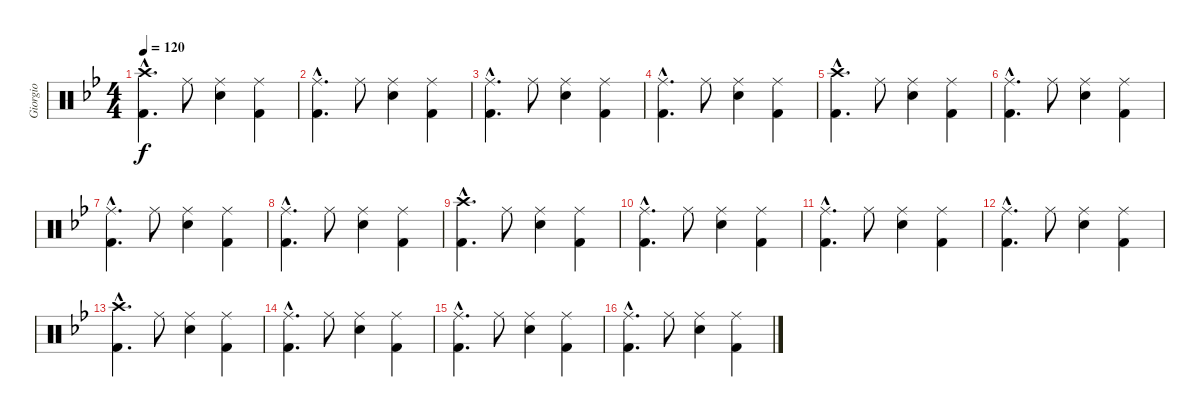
\track ("Giorgio" "Giorgio") {instrument percussion}
\staff {score}
\articulation defaults
\ts (4 4)
\tempo 120
\clef neutral
\ks gminor
("Crash high (hit)"{hac} "Kick (hit) 2"{hac}).4{d dy f} "Ride (middle)".8 ("Ride (middle)" "Snare (hit) 2").4 ("Ride (middle)" "Kick (hit) 2").4 |
("Ride (middle)"{hac} "Kick (hit) 2"{hac}).4{d} "Ride (middle)".8 ("Ride (middle)" "Snare (hit) 2").4 ("Kick (hit) 2" "Ride (middle)").4 |
("Ride (middle)"{hac} "Kick (hit) 2"{hac}).4{d} "Ride (middle)".8 ("Ride (middle)" "Snare (hit) 2").4 ("Kick (hit) 2" "Ride (middle)").4 |
("Ride (middle)"{hac} "Kick (hit) 2"{hac}).4{d} "Ride (middle)".8 ("Ride (middle)" "Snare (hit) 2").4 ("Kick (hit) 2" "Ride (middle)").4 |
("Crash high (hit)"{hac} "Kick (hit) 2"{hac}).4{d} "Ride (middle)".8 ("Ride (middle)" "Snare (hit) 2").4 ("Ride (middle)" "Kick (hit) 2").4 |
("Ride (middle)"{hac} "Kick (hit) 2"{hac}).4{d} "Ride (middle)".8 ("Ride (middle)" "Snare (hit) 2").4 ("Kick (hit) 2" "Ride (middle)").4 |
("Ride (middle)"{hac} "Kick (hit) 2"{hac}).4{d} "Ride (middle)".8 ("Ride (middle)" "Snare (hit) 2").4 ("Kick (hit) 2" "Ride (middle)").4 |
("Ride (middle)"{hac} "Kick (hit) 2"{hac}).4{d} "Ride (middle)".8 ("Ride (middle)" "Snare (hit) 2").4 ("Kick (hit) 2" "Ride (middle)").4 |
("Crash high (hit)"{hac} "Kick (hit) 2"{hac}).4{d} "Ride (middle)".8 ("Ride (middle)" "Snare (hit) 2").4 ("Ride (middle)" "Kick (hit) 2").4 |
("Ride (middle)"{hac} "Kick (hit) 2"{hac}).4{d} "Ride (middle)".8 ("Ride (middle)" "Snare (hit) 2").4 ("Kick (hit) 2" "Ride (middle)").4 |
("Ride (middle)"{hac} "Kick (hit) 2"{hac}).4{d} "Ride (middle)".8 ("Ride (middle)" "Snare (hit) 2").4 ("Kick (hit) 2" "Ride (middle)").4 |
("Ride (middle)"{hac} "Kick (hit) 2"{hac}).4{d} "Ride (middle)".8 ("Ride (middle)" "Snare (hit) 2").4 ("Kick (hit) 2" "Ride (middle)").4 |
("Crash high (hit)"{hac} "Kick (hit) 2"{hac}).4{d} "Ride (middle)".8 ("Ride (middle)" "Snare (hit) 2").4 ("Ride (middle)" "Kick (hit) 2").4 |
("Ride (middle)"{hac} "Kick (hit) 2"{hac}).4{d} "Ride (middle)".8 ("Ride (middle)" "Snare (hit) 2").4 ("Kick (hit) 2" "Ride (middle)").4 |
("Ride (middle)"{hac} "Kick (hit) 2"{hac}).4{d} "Ride (middle)".8 ("Ride (middle)" "Snare (hit) 2").4 ("Kick (hit) 2" "Ride (middle)").4 |
("Ride (middle)"{hac} "Kick (hit) 2"{hac}).4{d} "Ride (middle)".8 ("Ride (middle)" "Snare (hit) 2").4 ("Kick (hit) 2" "Ride (middle)").4
